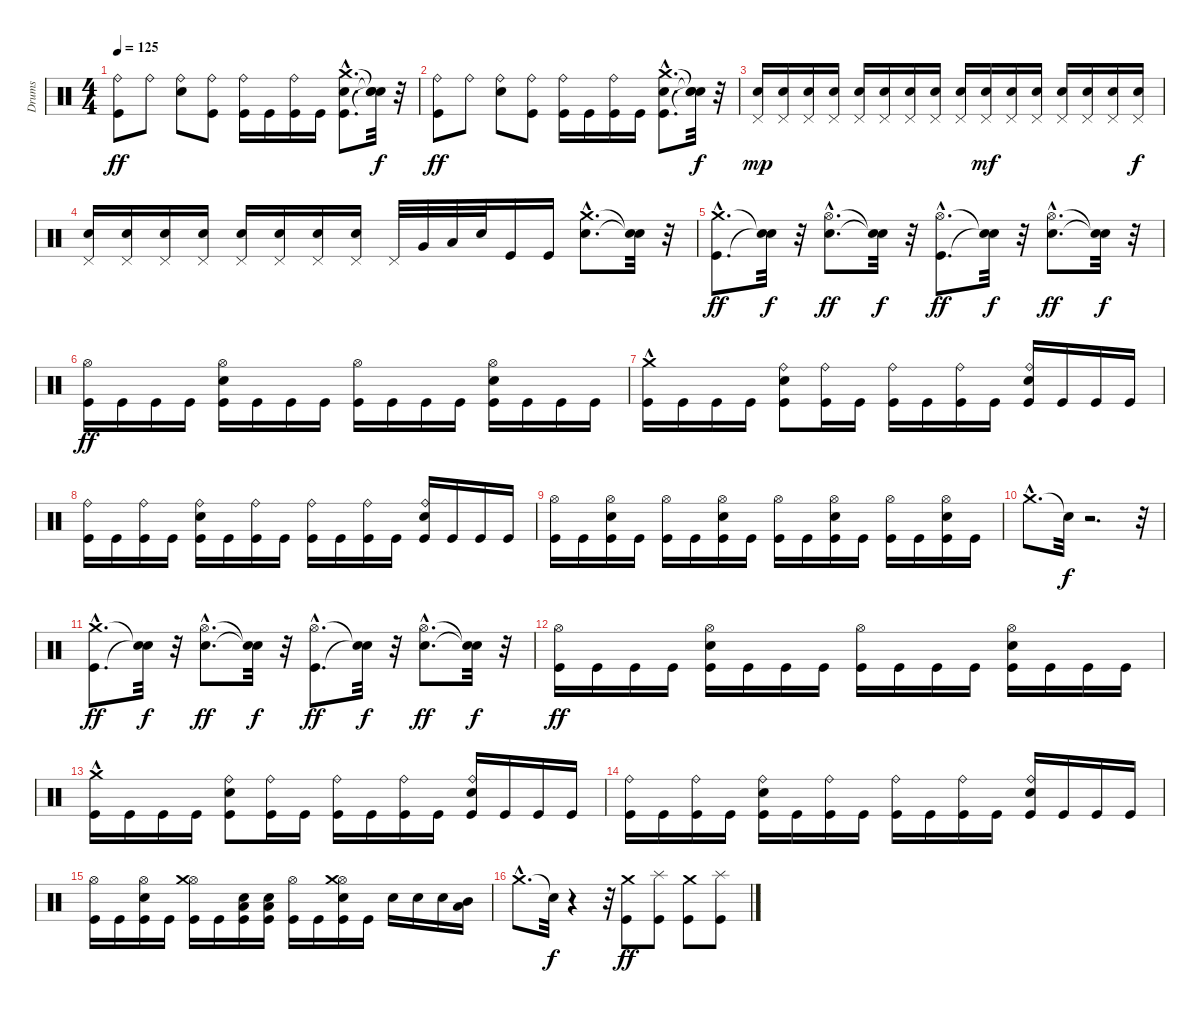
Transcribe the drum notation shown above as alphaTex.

\track ("Drums" "Drums") {instrument percussion}
\staff {score}
\articulation defaults
\ts (4 4)
\tempo 125
\clef neutral
\ks c
("Kick (hit)" "Ride (bell)").8{dy ff} "Ride (bell)".8 ("Electric Snare (hit)" "Ride (bell)").8 ("Kick (hit)" "Ride (bell)").8 ("Kick (hit)" "Ride (bell)").16 "Kick (hit)".16 ("Kick (hit)" "Ride (bell)").16 "Kick (hit)".16 ("Kick (hit)"{hac} "Electric Snare (hit)"{hac} "Crash medium (hit)"{hac}).8{d} ("Snare (hit)"{t} "Snare (hit)"{t} "Snare (hit)"{t}).32{dy f} r.32 |
("Kick (hit)" "Ride (bell)").8{dy ff} "Ride (bell)".8 ("Electric Snare (hit)" "Ride (bell)").8 ("Kick (hit)" "Ride (bell)").8 ("Kick (hit)" "Ride (bell)").16 "Kick (hit)".16 ("Kick (hit)" "Ride (bell)").16 "Kick (hit)".16 ("Kick (hit)"{hac} "Electric Snare (hit)"{hac} "Crash medium (hit)"{hac}).8{d} ("Snare (hit)"{t} "Snare (hit)"{t} "Snare (hit)"{t}).32{dy f} r.32 |
("Electric Snare (hit)" "Pedal Hi-Hat (hit)").16{dy mp} ("Electric Snare (hit)" "Pedal Hi-Hat (hit)").16 ("Electric Snare (hit)" "Pedal Hi-Hat (hit)").16 ("Electric Snare (hit)" "Pedal Hi-Hat (hit)").16 ("Electric Snare (hit)" "Pedal Hi-Hat (hit)").16 ("Electric Snare (hit)" "Pedal Hi-Hat (hit)").16 ("Electric Snare (hit)" "Pedal Hi-Hat (hit)").16 ("Electric Snare (hit)" "Pedal Hi-Hat (hit)").16 ("Electric Snare (hit)" "Pedal Hi-Hat (hit)").16 ("Electric Snare (hit)" "Pedal Hi-Hat (hit)").16{dy mf} ("Electric Snare (hit)" "Pedal Hi-Hat (hit)").16 ("Electric Snare (hit)" "Pedal Hi-Hat (hit)").16 ("Electric Snare (hit)" "Pedal Hi-Hat (hit)").16 ("Electric Snare (hit)" "Pedal Hi-Hat (hit)").16 ("Electric Snare (hit)" "Pedal Hi-Hat (hit)").16 ("Electric Snare (hit)" "Pedal Hi-Hat (hit)").16{dy f} |
("Electric Snare (hit)" "Pedal Hi-Hat (hit)").16 ("Electric Snare (hit)" "Pedal Hi-Hat (hit)").16 ("Electric Snare (hit)" "Pedal Hi-Hat (hit)").16 ("Electric Snare (hit)" "Pedal Hi-Hat (hit)").16 ("Electric Snare (hit)" "Pedal Hi-Hat (hit)").16 ("Electric Snare (hit)" "Pedal Hi-Hat (hit)").16 ("Electric Snare (hit)" "Pedal Hi-Hat (hit)").16 ("Electric Snare (hit)" "Pedal Hi-Hat (hit)").16 "Pedal Hi-Hat (hit)".32 "Very Low Tom (hit)".32 "Low Floor Tom (hit)".32 "Electric Snare (hit)".32 "Kick (hit)".16 "Kick (hit)".16 ("Electric Snare (hit)"{hac} "Crash medium (hit)"{hac}).8{d} ("Snare (hit)"{t} "Snare (hit)"{t}).32 r.32 |
("Kick (hit)"{hac} "Crash medium (hit)"{hac}).8{d dy ff} ("Snare (hit)"{t} "Snare (hit)"{t}).32{dy f} r.32 ("Electric Snare (hit)"{hac} "Hi-Hat (open)"{hac}).8{d dy ff} ("Snare (hit)"{t} "Snare (hit)"{t}).32{dy f} r.32 ("Kick (hit)"{hac} "Hi-Hat (open)"{hac}).8{d dy ff} ("Snare (hit)"{t} "Snare (hit)"{t}).32{dy f} r.32 ("Electric Snare (hit)"{hac} "Hi-Hat (open)"{hac}).8{d dy ff} ("Snare (hit)"{t} "Snare (hit)"{t}).32{dy f} r.32 |
("Kick (hit)" "Hi-Hat (open)").16{dy ff} "Kick (hit)".16 "Kick (hit)".16 "Kick (hit)".16 ("Kick (hit)" "Electric Snare (hit)" "Hi-Hat (open)").16 "Kick (hit)".16 "Kick (hit)".16 "Kick (hit)".16 ("Kick (hit)" "Hi-Hat (open)").16 "Kick (hit)".16 "Kick (hit)".16 "Kick (hit)".16 ("Kick (hit)" "Electric Snare (hit)" "Hi-Hat (open)").16 "Kick (hit)".16 "Kick (hit)".16 "Kick (hit)".16 |
("Kick (hit)" "Crash medium (hit)"{hac}).16 "Kick (hit)".16 "Kick (hit)".16 "Kick (hit)".16 ("Kick (hit)" "Electric Snare (hit)" "Ride (bell)").8 ("Kick (hit)" "Ride (bell)").16 "Kick (hit)".16 ("Kick (hit)" "Ride (bell)").16 "Kick (hit)".16 ("Kick (hit)" "Ride (bell)").16 "Kick (hit)".16 ("Kick (hit)" "Electric Snare (hit)" "Ride (bell)").16 "Kick (hit)".16 "Kick (hit)".16 "Kick (hit)".16 |
("Kick (hit)" "Ride (bell)").16 "Kick (hit)".16 ("Kick (hit)" "Ride (bell)").16 "Kick (hit)".16 ("Kick (hit)" "Electric Snare (hit)" "Ride (bell)").16 "Kick (hit)".16 ("Kick (hit)" "Ride (bell)").16 "Kick (hit)".16 ("Kick (hit)" "Ride (bell)").16 "Kick (hit)".16 ("Kick (hit)" "Ride (bell)").16 "Kick (hit)".16 ("Kick (hit)" "Electric Snare (hit)" "Ride (bell)").16 "Kick (hit)".16 "Kick (hit)".16 "Kick (hit)".16 |
("Kick (hit)" "Hi-Hat (open)").16 "Kick (hit)".16 ("Kick (hit)" "Electric Snare (hit)" "Hi-Hat (open)").16 "Kick (hit)".16 ("Kick (hit)" "Hi-Hat (open)").16 "Kick (hit)".16 ("Kick (hit)" "Electric Snare (hit)" "Hi-Hat (open)").16 "Kick (hit)".16 ("Kick (hit)" "Hi-Hat (open)").16 "Kick (hit)".16 ("Kick (hit)" "Electric Snare (hit)" "Hi-Hat (open)").16 "Kick (hit)".16 ("Kick (hit)" "Hi-Hat (open)").16 "Kick (hit)".16 ("Kick (hit)" "Electric Snare (hit)" "Hi-Hat (open)").16 "Kick (hit)".16 |
"Crash medium (hit)"{hac}.8{d} "Snare (hit)"{t}.32{dy f} r.2{d} r.32 |
("Kick (hit)"{hac} "Crash medium (hit)"{hac}).8{d dy ff} ("Snare (hit)"{t} "Snare (hit)"{t}).32{dy f} r.32 ("Electric Snare (hit)"{hac} "Hi-Hat (open)"{hac}).8{d dy ff} ("Snare (hit)"{t} "Snare (hit)"{t}).32{dy f} r.32 ("Kick (hit)"{hac} "Hi-Hat (open)"{hac}).8{d dy ff} ("Snare (hit)"{t} "Snare (hit)"{t}).32{dy f} r.32 ("Electric Snare (hit)"{hac} "Hi-Hat (open)"{hac}).8{d dy ff} ("Snare (hit)"{t} "Snare (hit)"{t}).32{dy f} r.32 |
("Kick (hit)" "Hi-Hat (open)").16{dy ff} "Kick (hit)".16 "Kick (hit)".16 "Kick (hit)".16 ("Kick (hit)" "Electric Snare (hit)" "Hi-Hat (open)").16 "Kick (hit)".16 "Kick (hit)".16 "Kick (hit)".16 ("Kick (hit)" "Hi-Hat (open)").16 "Kick (hit)".16 "Kick (hit)".16 "Kick (hit)".16 ("Kick (hit)" "Electric Snare (hit)" "Hi-Hat (open)").16 "Kick (hit)".16 "Kick (hit)".16 "Kick (hit)".16 |
("Kick (hit)" "Crash medium (hit)"{hac}).16 "Kick (hit)".16 "Kick (hit)".16 "Kick (hit)".16 ("Kick (hit)" "Electric Snare (hit)" "Ride (bell)").8 ("Kick (hit)" "Ride (bell)").16 "Kick (hit)".16 ("Kick (hit)" "Ride (bell)").16 "Kick (hit)".16 ("Kick (hit)" "Ride (bell)").16 "Kick (hit)".16 ("Kick (hit)" "Electric Snare (hit)" "Ride (bell)").16 "Kick (hit)".16 "Kick (hit)".16 "Kick (hit)".16 |
("Kick (hit)" "Ride (bell)").16 "Kick (hit)".16 ("Kick (hit)" "Ride (bell)").16 "Kick (hit)".16 ("Kick (hit)" "Electric Snare (hit)" "Ride (bell)").16 "Kick (hit)".16 ("Kick (hit)" "Ride (bell)").16 "Kick (hit)".16 ("Kick (hit)" "Ride (bell)").16 "Kick (hit)".16 ("Kick (hit)" "Ride (bell)").16 "Kick (hit)".16 ("Kick (hit)" "Electric Snare (hit)" "Ride (bell)").16 "Kick (hit)".16 "Kick (hit)".16 "Kick (hit)".16 |
("Kick (hit)" "Hi-Hat (open)").16 "Kick (hit)".16 ("Kick (hit)" "Electric Snare (hit)" "Hi-Hat (open)").16 "Kick (hit)".16 ("Kick (hit)" "Hi-Hat (open)" "Crash medium (hit)").16 "Kick (hit)".16 ("Kick (hit)" "Electric Snare (hit)" "Low Tom (hit)").16 ("Kick (hit)" "Electric Snare (hit)" "Low Tom (hit)").16 ("Kick (hit)" "Hi-Hat (open)").16 "Kick (hit)".16 ("Kick (hit)" "Electric Snare (hit)" "Hi-Hat (open)" "Crash medium (hit)").16 "Kick (hit)".16 "Electric Snare (hit)".16 "Electric Snare (hit)".16 "Electric Snare (hit)".16 ("Low Floor Tom (hit)" "Mid Tom (hit)").16 |
"Crash medium (hit)"{hac}.8{d} "Snare (hit)"{t}.32{dy f} r.4 r.32 ("Kick (hit)" "Crash medium (hit)").8{dy ff} ("Kick (hit)" "Splash (hit)").8 ("Kick (hit)" "Crash medium (hit)").8 ("Kick (hit)" "Splash (hit)").8
